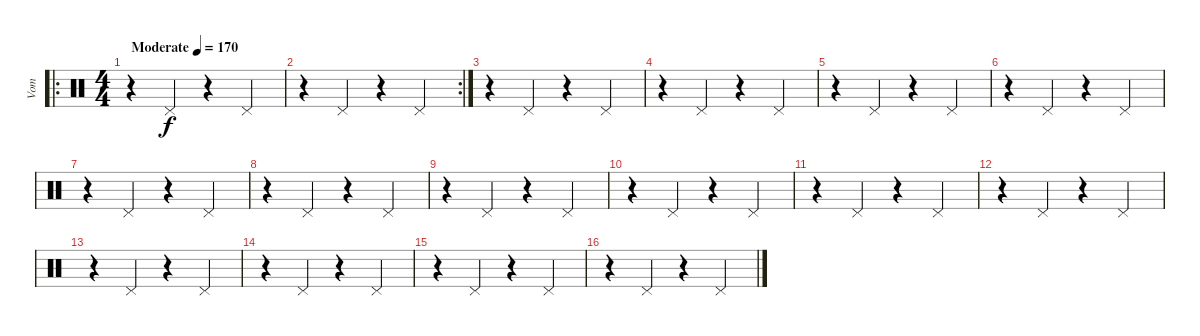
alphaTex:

\track ("Vom" "Vom") {instrument percussion}
\staff {score}
\articulation defaults
\ro
\ts (4 4)
\tempo (170 "Moderate")
\clef neutral
\ks c
r.4{dy f} "Pedal Hi-Hat (hit)".4 r.4 "Pedal Hi-Hat (hit)".4 |
\rc 2
r.4 "Pedal Hi-Hat (hit)".4 r.4 "Pedal Hi-Hat (hit)".4 |
r.4 "Pedal Hi-Hat (hit)".4 r.4 "Pedal Hi-Hat (hit)".4 |
r.4 "Pedal Hi-Hat (hit)".4 r.4 "Pedal Hi-Hat (hit)".4 |
r.4 "Pedal Hi-Hat (hit)".4 r.4 "Pedal Hi-Hat (hit)".4 |
r.4 "Pedal Hi-Hat (hit)".4 r.4 "Pedal Hi-Hat (hit)".4 |
r.4 "Pedal Hi-Hat (hit)".4 r.4 "Pedal Hi-Hat (hit)".4 |
r.4 "Pedal Hi-Hat (hit)".4 r.4 "Pedal Hi-Hat (hit)".4 |
r.4 "Pedal Hi-Hat (hit)".4 r.4 "Pedal Hi-Hat (hit)".4 |
r.4 "Pedal Hi-Hat (hit)".4 r.4 "Pedal Hi-Hat (hit)".4 |
r.4 "Pedal Hi-Hat (hit)".4 r.4 "Pedal Hi-Hat (hit)".4 |
r.4 "Pedal Hi-Hat (hit)".4 r.4 "Pedal Hi-Hat (hit)".4 |
r.4 "Pedal Hi-Hat (hit)".4 r.4 "Pedal Hi-Hat (hit)".4 |
r.4 "Pedal Hi-Hat (hit)".4 r.4 "Pedal Hi-Hat (hit)".4 |
r.4 "Pedal Hi-Hat (hit)".4 r.4 "Pedal Hi-Hat (hit)".4 |
r.4 "Pedal Hi-Hat (hit)".4 r.4 "Pedal Hi-Hat (hit)".4
